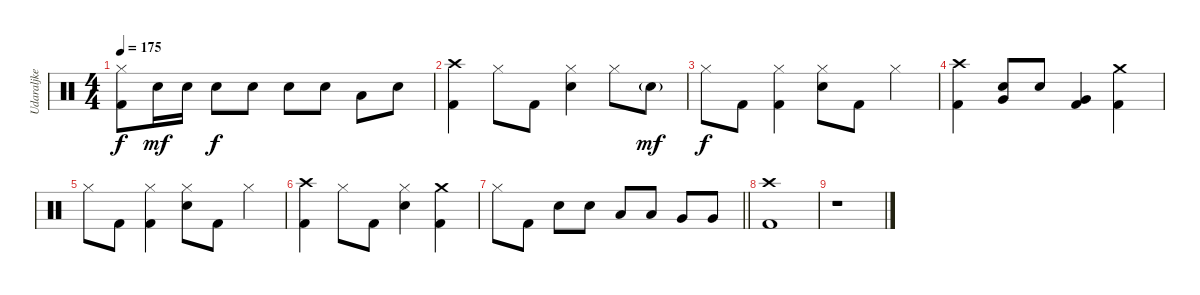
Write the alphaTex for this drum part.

\track ("Udaraljke" "Udaraljke") {instrument percussion}
\staff {score}
\articulation defaults
\ts (4 4)
\tempo 175
\clef neutral
\ks c
("Hi-Hat (closed)" "Kick (hit) 2").8{dy f} "Electric Snare (hit)".16{dy mf} "Electric Snare (hit)".16 "Electric Snare (hit)".8{dy f} "Electric Snare (hit)".8 "Electric Snare (hit)".8 "Electric Snare (hit)".8 "Low Tom (hit)".8 "Electric Snare (hit)".8 |
("Crash high (hit)" "Kick (hit) 2").4 "Hi-Hat (closed)".8 "Kick (hit) 2".8 ("Hi-Hat (closed)" "Electric Snare (hit)").4 "Hi-Hat (closed)".8 "Electric Snare (hit)"{g}.8{dy mf} |
"Hi-Hat (closed)".8{dy f} "Kick (hit) 2".8 ("Hi-Hat (closed)" "Kick (hit) 2").4 ("Hi-Hat (closed)" "Electric Snare (hit)").8 "Kick (hit) 2".8 "Hi-Hat (closed)".4 |
("Crash high (hit)" "Kick (hit) 2").4 ("Very Low Tom (hit)" "Electric Snare (hit)").8 "Electric Snare (hit)".8 ("Very Low Tom (hit)" "Kick (hit) 2").4 ("Crash medium (hit)" "Kick (hit) 2").4 |
"Hi-Hat (closed)".8 "Kick (hit) 2".8 ("Hi-Hat (closed)" "Kick (hit) 2").4 ("Hi-Hat (closed)" "Electric Snare (hit)").8 "Kick (hit) 2".8 "Hi-Hat (closed)".4 |
("Crash high (hit)" "Kick (hit) 2").4 "Hi-Hat (closed)".8 "Kick (hit) 2".8 ("Hi-Hat (closed)" "Electric Snare (hit)").4 ("Crash medium (hit)" "Kick (hit) 2").4 |
\barLineRight lightlight "Hi-Hat (closed)".8 "Kick (hit) 2".8 "Electric Snare (hit)".8 "Electric Snare (hit)".8 "Low Tom (hit)".8 "Low Tom (hit)".8 "Very Low Tom (hit)".8 "Very Low Tom (hit)".8
|
("Crash high (hit)" "Kick (hit) 2").1 |
r.1
